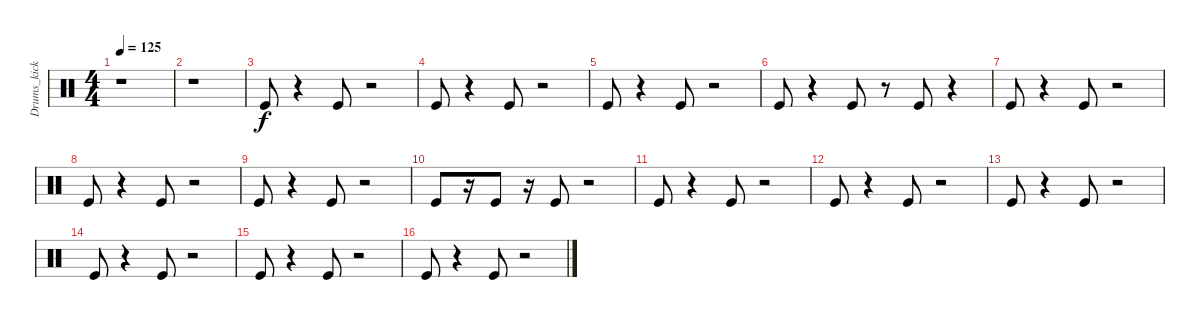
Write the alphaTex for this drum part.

\track ("Drums_kick" "Drums_kick") {instrument percussion}
\staff {score}
\articulation defaults
\ts (4 4)
\tempo 125
\clef neutral
\ks c
r.1{dy f} |
r.1 |
"Kick (hit)".8 r.4 "Kick (hit)".8 r.2 |
"Kick (hit)".8 r.4 "Kick (hit)".8 r.2 |
"Kick (hit)".8 r.4 "Kick (hit)".8 r.2 |
"Kick (hit)".8 r.4 "Kick (hit)".8 r.8 "Kick (hit)".8 r.4 |
"Kick (hit)".8 r.4 "Kick (hit)".8 r.2 |
"Kick (hit)".8 r.4 "Kick (hit)".8 r.2 |
"Kick (hit)".8 r.4 "Kick (hit)".8 r.2 |
"Kick (hit)".8 r.16 "Kick (hit)".8 r.16 "Kick (hit)".8 r.2 |
"Kick (hit)".8 r.4 "Kick (hit)".8 r.2 |
"Kick (hit)".8 r.4 "Kick (hit)".8 r.2 |
"Kick (hit)".8 r.4 "Kick (hit)".8 r.2 |
"Kick (hit)".8 r.4 "Kick (hit)".8 r.2 |
"Kick (hit)".8 r.4 "Kick (hit)".8 r.2 |
"Kick (hit)".8 r.4 "Kick (hit)".8 r.2
